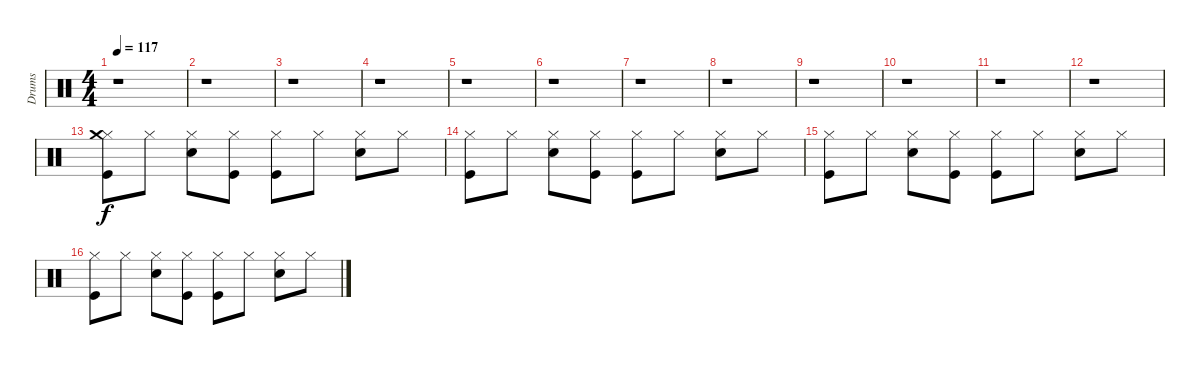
\track ("Drums" "Drums") {instrument percussion}
\staff {score}
\articulation defaults
\ts (4 4)
\tempo 117
\clef neutral
\ks c
r.1{dy f} |
r.1 |
r.1 |
r.1 |
r.1 |
r.1 |
r.1 |
r.1 |
r.1 |
r.1 |
r.1 |
r.1 |
("Kick (hit)" "Hi-Hat (closed)" "Crash medium (hit)").8 "Hi-Hat (closed)".8 ("Snare (hit) 2" "Hi-Hat (closed)").8 ("Kick (hit)" "Hi-Hat (closed)").8 ("Hi-Hat (closed)" "Kick (hit)").8 "Hi-Hat (closed)".8 ("Snare (hit) 2" "Hi-Hat (closed)").8 "Hi-Hat (closed)".8 |
("Kick (hit)" "Hi-Hat (closed)").8 "Hi-Hat (closed)".8 ("Snare (hit) 2" "Hi-Hat (closed)").8 ("Kick (hit)" "Hi-Hat (closed)").8 ("Hi-Hat (closed)" "Kick (hit)").8 "Hi-Hat (closed)".8 ("Snare (hit) 2" "Hi-Hat (closed)").8 "Hi-Hat (closed)".8 |
("Kick (hit)" "Hi-Hat (closed)").8 "Hi-Hat (closed)".8 ("Snare (hit) 2" "Hi-Hat (closed)").8 ("Kick (hit)" "Hi-Hat (closed)").8 ("Hi-Hat (closed)" "Kick (hit)").8 "Hi-Hat (closed)".8 ("Snare (hit) 2" "Hi-Hat (closed)").8 "Hi-Hat (closed)".8 |
("Kick (hit)" "Hi-Hat (closed)").8 "Hi-Hat (closed)".8 ("Snare (hit) 2" "Hi-Hat (closed)").8 ("Kick (hit)" "Hi-Hat (closed)").8 ("Hi-Hat (closed)" "Kick (hit)").8 "Hi-Hat (closed)".8 ("Snare (hit) 2" "Hi-Hat (closed)").8 "Hi-Hat (closed)".8
